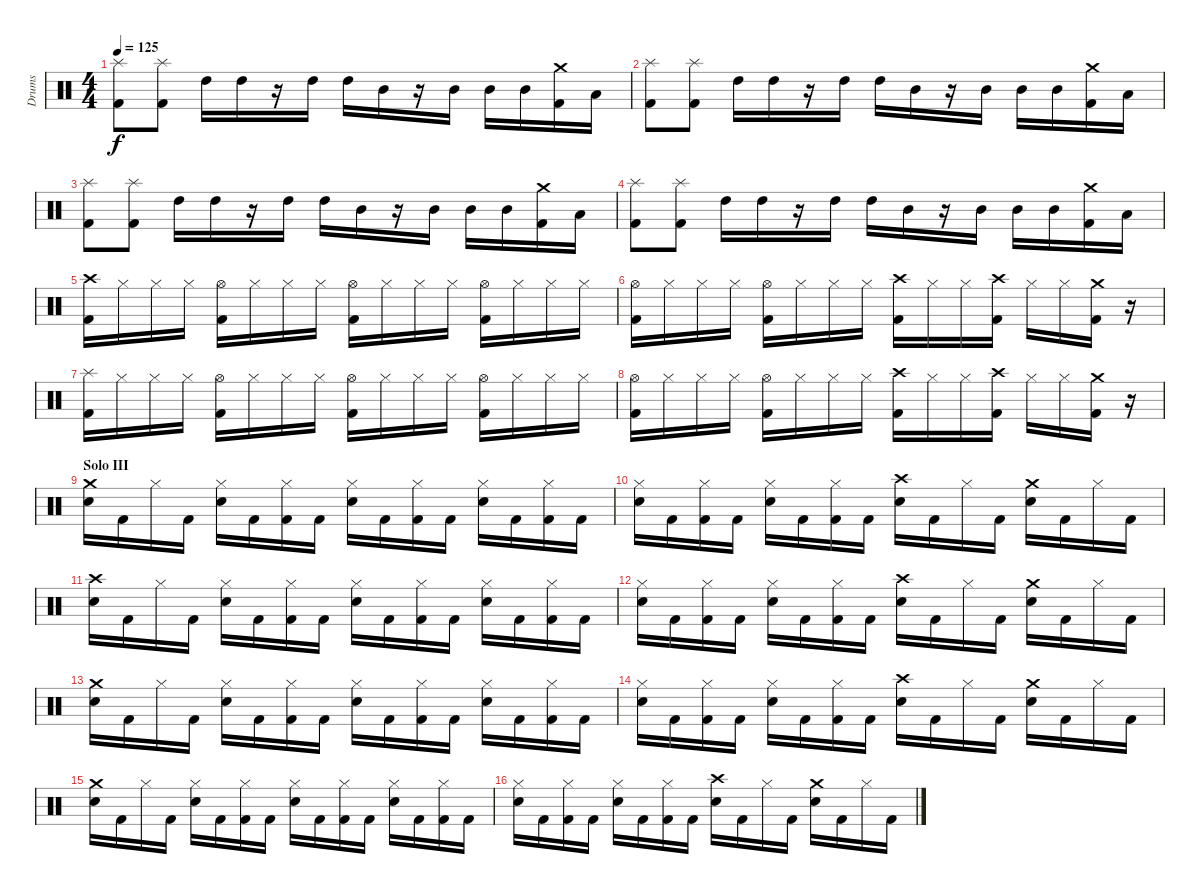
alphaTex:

\track ("Drums" "Drums") {instrument percussion}
\staff {score}
\articulation defaults
\ts (4 4)
\tempo 125
\clef neutral
\ks c
("Splash (hit)" "Kick (hit) 2").8{dy f} ("Splash (hit)" "Kick (hit) 2").8 "High Tom (hit)".16 "High Tom (hit)".16 r.16 "High Tom (hit)".16 "High Tom (hit)".16 "Mid Tom (hit)".16 r.16 "Mid Tom (hit)".16 "Mid Tom (hit)".16 "Mid Tom (hit)".16 ("Crash medium (hit)" "Kick (hit) 2").16 "Low Tom (hit)".16 |
("Splash (hit)" "Kick (hit) 2").8 ("Splash (hit)" "Kick (hit) 2").8 "High Tom (hit)".16 "High Tom (hit)".16 r.16 "High Tom (hit)".16 "High Tom (hit)".16 "Mid Tom (hit)".16 r.16 "Mid Tom (hit)".16 "Mid Tom (hit)".16 "Mid Tom (hit)".16 ("Crash medium (hit)" "Kick (hit) 2").16 "Low Tom (hit)".16 |
("Splash (hit)" "Kick (hit) 2").8 ("Splash (hit)" "Kick (hit) 2").8 "High Tom (hit)".16 "High Tom (hit)".16 r.16 "High Tom (hit)".16 "High Tom (hit)".16 "Mid Tom (hit)".16 r.16 "Mid Tom (hit)".16 "Mid Tom (hit)".16 "Mid Tom (hit)".16 ("Crash medium (hit)" "Kick (hit) 2").16 "Low Tom (hit)".16 |
("Splash (hit)" "Kick (hit) 2").8 ("Splash (hit)" "Kick (hit) 2").8 "High Tom (hit)".16 "High Tom (hit)".16 r.16 "High Tom (hit)".16 "High Tom (hit)".16 "Mid Tom (hit)".16 r.16 "Mid Tom (hit)".16 "Mid Tom (hit)".16 "Mid Tom (hit)".16 ("Crash medium (hit)" "Kick (hit) 2").16 "Low Tom (hit)".16 |
("Crash high (hit)" "Kick (hit) 2").16 "Hi-Hat (closed)".16 "Hi-Hat (closed)".16 "Hi-Hat (closed)".16 ("Hi-Hat (open)" "Kick (hit) 2").16 "Hi-Hat (closed)".16 "Hi-Hat (closed)".16 "Hi-Hat (closed)".16 ("Hi-Hat (open)" "Kick (hit) 2").16 "Hi-Hat (closed)".16 "Hi-Hat (closed)".16 "Hi-Hat (closed)".16 ("Hi-Hat (open)" "Kick (hit) 2").16 "Hi-Hat (closed)".16 "Hi-Hat (closed)".16 "Hi-Hat (closed)".16 |
("Hi-Hat (open)" "Kick (hit) 2").16 "Hi-Hat (closed)".16 "Hi-Hat (closed)".16 "Hi-Hat (closed)".16 ("Hi-Hat (open)" "Kick (hit) 2").16 "Hi-Hat (closed)".16 "Hi-Hat (closed)".16 "Hi-Hat (closed)".16 ("Crash high (hit)" "Kick (hit) 2").16 "Hi-Hat (closed)".16 "Hi-Hat (closed)".16 ("Crash high (hit)" "Kick (hit) 2").16 "Hi-Hat (closed)".16 "Hi-Hat (closed)".16 ("Crash medium (hit)" "Kick (hit) 2").16 r.16 |
("Splash (hit)" "Kick (hit) 2").16 "Hi-Hat (closed)".16 "Hi-Hat (closed)".16 "Hi-Hat (closed)".16 ("Hi-Hat (open)" "Kick (hit) 2").16 "Hi-Hat (closed)".16 "Hi-Hat (closed)".16 "Hi-Hat (closed)".16 ("Hi-Hat (open)" "Kick (hit) 2").16 "Hi-Hat (closed)".16 "Hi-Hat (closed)".16 "Hi-Hat (closed)".16 ("Hi-Hat (open)" "Kick (hit) 2").16 "Hi-Hat (closed)".16 "Hi-Hat (closed)".16 "Hi-Hat (closed)".16 |
("Hi-Hat (open)" "Kick (hit) 2").16 "Hi-Hat (closed)".16 "Hi-Hat (closed)".16 "Hi-Hat (closed)".16 ("Hi-Hat (open)" "Kick (hit) 2").16 "Hi-Hat (closed)".16 "Hi-Hat (closed)".16 "Hi-Hat (closed)".16 ("Crash high (hit)" "Kick (hit) 2").16 "Hi-Hat (closed)".16 "Hi-Hat (closed)".16 ("Crash high (hit)" "Kick (hit) 2").16 "Hi-Hat (closed)".16 "Hi-Hat (closed)".16 ("Crash medium (hit)" "Kick (hit) 2").16 r.16 |
\section ("" "Solo III")
("Crash medium (hit)" "Electric Snare (hit)").16 "Kick (hit) 2".16 "Hi-Hat (closed)".16 "Kick (hit) 2".16 ("Hi-Hat (closed)" "Electric Snare (hit)").16 "Kick (hit) 2".16 ("Hi-Hat (closed)" "Kick (hit) 2").16 "Kick (hit) 2".16 ("Hi-Hat (closed)" "Electric Snare (hit)").16 "Kick (hit) 2".16 ("Hi-Hat (closed)" "Kick (hit) 2").16 "Kick (hit) 2".16 ("Hi-Hat (closed)" "Electric Snare (hit)").16 "Kick (hit) 2".16 ("Hi-Hat (closed)" "Kick (hit) 2").16 "Kick (hit) 2".16 |
("Hi-Hat (closed)" "Electric Snare (hit)").16 "Kick (hit) 2".16 ("Hi-Hat (closed)" "Kick (hit) 2").16 "Kick (hit) 2".16 ("Hi-Hat (closed)" "Electric Snare (hit)").16 "Kick (hit) 2".16 ("Hi-Hat (closed)" "Kick (hit) 2").16 "Kick (hit) 2".16 ("Crash high (hit)" "Electric Snare (hit)").16 "Kick (hit) 2".16 "Hi-Hat (closed)".16 "Kick (hit) 2".16 ("Crash medium (hit)" "Electric Snare (hit)").16 "Kick (hit) 2".16 "Hi-Hat (closed)".16 "Kick (hit) 2".16 |
("Crash high (hit)" "Electric Snare (hit)").16 "Kick (hit) 2".16 "Hi-Hat (closed)".16 "Kick (hit) 2".16 ("Hi-Hat (closed)" "Electric Snare (hit)").16 "Kick (hit) 2".16 ("Hi-Hat (closed)" "Kick (hit) 2").16 "Kick (hit) 2".16 ("Hi-Hat (closed)" "Electric Snare (hit)").16 "Kick (hit) 2".16 ("Hi-Hat (closed)" "Kick (hit) 2").16 "Kick (hit) 2".16 ("Hi-Hat (closed)" "Electric Snare (hit)").16 "Kick (hit) 2".16 ("Hi-Hat (closed)" "Kick (hit) 2").16 "Kick (hit) 2".16 |
("Hi-Hat (closed)" "Electric Snare (hit)").16 "Kick (hit) 2".16 ("Hi-Hat (closed)" "Kick (hit) 2").16 "Kick (hit) 2".16 ("Hi-Hat (closed)" "Electric Snare (hit)").16 "Kick (hit) 2".16 ("Hi-Hat (closed)" "Kick (hit) 2").16 "Kick (hit) 2".16 ("Crash high (hit)" "Electric Snare (hit)").16 "Kick (hit) 2".16 "Hi-Hat (closed)".16 "Kick (hit) 2".16 ("Crash medium (hit)" "Electric Snare (hit)").16 "Kick (hit) 2".16 "Hi-Hat (closed)".16 "Kick (hit) 2".16 |
("Crash medium (hit)" "Electric Snare (hit)").16 "Kick (hit) 2".16 "Hi-Hat (closed)".16 "Kick (hit) 2".16 ("Hi-Hat (closed)" "Electric Snare (hit)").16 "Kick (hit) 2".16 ("Hi-Hat (closed)" "Kick (hit) 2").16 "Kick (hit) 2".16 ("Hi-Hat (closed)" "Electric Snare (hit)").16 "Kick (hit) 2".16 ("Hi-Hat (closed)" "Kick (hit) 2").16 "Kick (hit) 2".16 ("Hi-Hat (closed)" "Electric Snare (hit)").16 "Kick (hit) 2".16 ("Hi-Hat (closed)" "Kick (hit) 2").16 "Kick (hit) 2".16 |
("Hi-Hat (closed)" "Electric Snare (hit)").16 "Kick (hit) 2".16 ("Hi-Hat (closed)" "Kick (hit) 2").16 "Kick (hit) 2".16 ("Hi-Hat (closed)" "Electric Snare (hit)").16 "Kick (hit) 2".16 ("Hi-Hat (closed)" "Kick (hit) 2").16 "Kick (hit) 2".16 ("Crash high (hit)" "Electric Snare (hit)").16 "Kick (hit) 2".16 "Hi-Hat (closed)".16 "Kick (hit) 2".16 ("Crash medium (hit)" "Electric Snare (hit)").16 "Kick (hit) 2".16 "Hi-Hat (closed)".16 "Kick (hit) 2".16 |
("Crash medium (hit)" "Electric Snare (hit)").16 "Kick (hit) 2".16 "Hi-Hat (closed)".16 "Kick (hit) 2".16 ("Hi-Hat (closed)" "Electric Snare (hit)").16 "Kick (hit) 2".16 ("Hi-Hat (closed)" "Kick (hit) 2").16 "Kick (hit) 2".16 ("Hi-Hat (closed)" "Electric Snare (hit)").16 "Kick (hit) 2".16 ("Hi-Hat (closed)" "Kick (hit) 2").16 "Kick (hit) 2".16 ("Hi-Hat (closed)" "Electric Snare (hit)").16 "Kick (hit) 2".16 ("Hi-Hat (closed)" "Kick (hit) 2").16 "Kick (hit) 2".16 |
("Hi-Hat (closed)" "Electric Snare (hit)").16 "Kick (hit) 2".16 ("Hi-Hat (closed)" "Kick (hit) 2").16 "Kick (hit) 2".16 ("Hi-Hat (closed)" "Electric Snare (hit)").16 "Kick (hit) 2".16 ("Hi-Hat (closed)" "Kick (hit) 2").16 "Kick (hit) 2".16 ("Crash high (hit)" "Electric Snare (hit)").16 "Kick (hit) 2".16 "Hi-Hat (closed)".16 "Kick (hit) 2".16 ("Crash medium (hit)" "Electric Snare (hit)").16 "Kick (hit) 2".16 "Hi-Hat (closed)".16 "Kick (hit) 2".16
